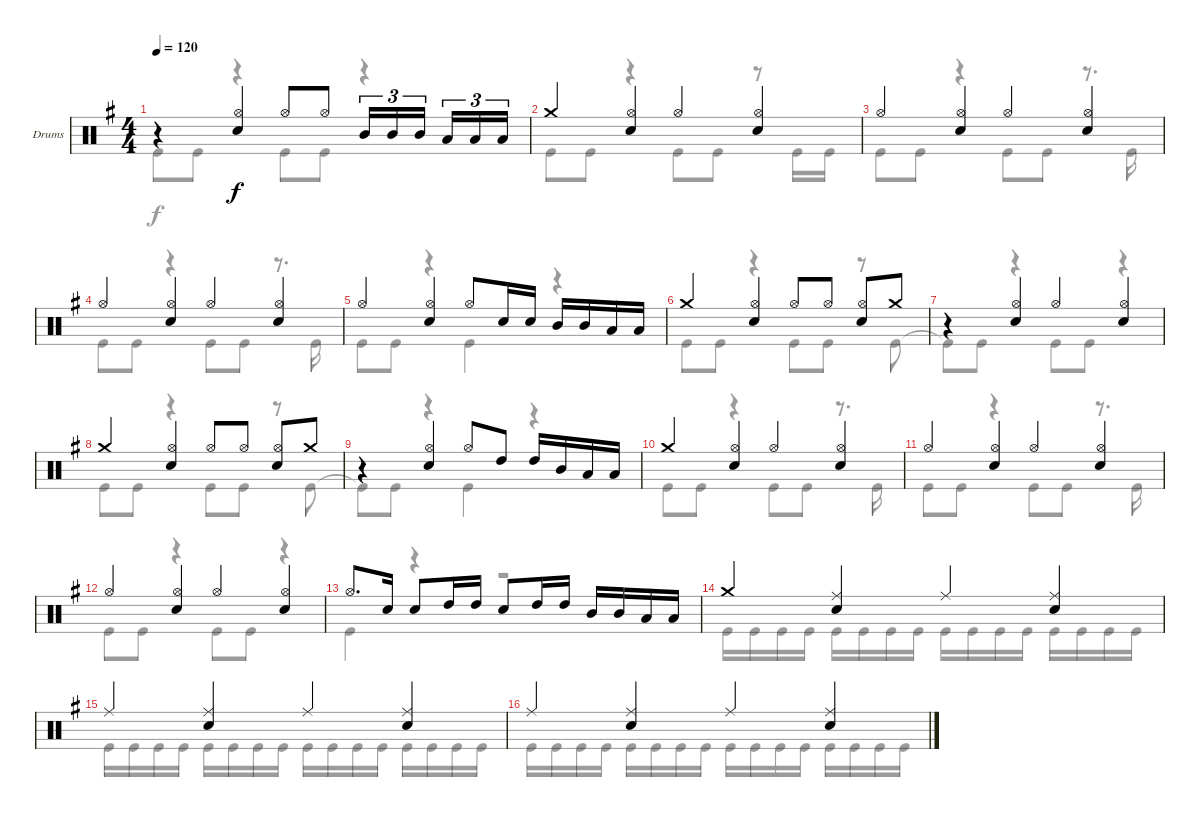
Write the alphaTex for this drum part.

\bracketExtendMode groupsimilarinstruments
\firstSystemTrackNameOrientation horizontal
\otherSystemsTrackNameOrientation horizontal
\track ("Drumkit" "Drums") {mute instrument percussion}
\staff {score}
\articulation defaults
\voice
\ts (4 4)
\tempo 120
\clef neutral
\ks eminor
r.4{dy f} ("Hi-Hat (open)" "Snare (hit) 2").4 "Hi-Hat (open)".8 "Hi-Hat (open)".8 "Mid Tom (hit)".16{tu (3 2)} "Mid Tom (hit)".16{tu (3 2)} "Mid Tom (hit)".16{tu (3 2)} "Low Tom (hit)".16{tu (3 2)} "Low Tom (hit)".16{tu (3 2)} "Low Tom (hit)".16{tu (3 2)} |
"Crash medium (hit)".4 ("Hi-Hat (open)" "Snare (hit) 2").4 "Hi-Hat (open)".4 ("Hi-Hat (open)" "Snare (hit) 2").4 |
"Hi-Hat (open)".4 ("Hi-Hat (open)" "Snare (hit) 2").4 "Hi-Hat (open)".4 ("Hi-Hat (open)" "Snare (hit) 2").4 |
"Hi-Hat (open)".4 ("Hi-Hat (open)" "Snare (hit) 2").4 "Hi-Hat (open)".4 ("Hi-Hat (open)" "Snare (hit) 2").4 |
"Hi-Hat (open)".4 ("Hi-Hat (open)" "Snare (hit) 2").4 "Hi-Hat (open)".8 "Snare (hit) 2".16 "Snare (hit) 2".16 "Mid Tom (hit)".16 "Mid Tom (hit)".16 "Low Tom (hit)".16 "Low Tom (hit)".16 |
"Crash medium (hit)".4 ("Hi-Hat (open)" "Snare (hit) 2").4 "Hi-Hat (open)".8 "Hi-Hat (open)".8 ("Hi-Hat (open)" "Snare (hit) 2").8 "Crash medium (hit)".8 |
r.4 ("Hi-Hat (open)" "Snare (hit) 2").4 "Hi-Hat (open)".4 ("Hi-Hat (open)" "Snare (hit) 2").4 |
"Crash medium (hit)".4 ("Hi-Hat (open)" "Snare (hit) 2").4 "Hi-Hat (open)".8 "Hi-Hat (open)".8 ("Hi-Hat (open)" "Snare (hit) 2").8 "Crash medium (hit)".8 |
r.4 ("Hi-Hat (open)" "Snare (hit) 2").4 "Hi-Hat (open)".8 "High Tom (hit)".8 "High Tom (hit)".16 "Mid Tom (hit)".16 "Low Tom (hit)".16 "Low Tom (hit)".16 |
"Crash medium (hit)".4 ("Hi-Hat (open)" "Snare (hit) 2").4 "Hi-Hat (open)".4 ("Hi-Hat (open)" "Snare (hit) 2").4 |
"Hi-Hat (open)".4 ("Hi-Hat (open)" "Snare (hit) 2").4 "Hi-Hat (open)".4 ("Hi-Hat (open)" "Snare (hit) 2").4 |
"Hi-Hat (open)".4 ("Hi-Hat (open)" "Snare (hit) 2").4 "Hi-Hat (open)".4 ("Hi-Hat (open)" "Snare (hit) 2").4 |
"Hi-Hat (open)".8{d} "Snare (hit) 2".16 "Snare (hit) 2".8 "High Tom (hit)".16 "High Tom (hit)".16 "Snare (hit) 2".8 "High Tom (hit)".16 "High Tom (hit)".16 "Mid Tom (hit)".16 "Mid Tom (hit)".16 "Low Tom (hit)".16 "Low Tom (hit)".16 |
"Crash medium (hit)".4 ("Ride (middle)" "Snare (hit) 2").4 "Ride (middle)".4 ("Ride (middle)" "Snare (hit) 2").4 |
"Ride (middle)".4 ("Ride (middle)" "Snare (hit) 2").4 "Ride (middle)".4 ("Ride (middle)" "Snare (hit) 2").4 |
"Ride (middle)".4 ("Ride (middle)" "Snare (hit) 2").4 "Ride (middle)".4 ("Ride (middle)" "Snare (hit) 2").4
\voice
\clef neutral
\ottava regular
\simile none
\ks eminor "Kick (hit)"{t}.8{dy f} "Kick (hit)".8
r.4 "Kick (hit)".8 "Kick (hit)".8 r.4 |
"Kick (hit)".8 "Kick (hit)".8 r.4 "Kick (hit)".8 "Kick (hit)".8 r.8 "Kick (hit)".16 "Kick (hit)".16 |
"Kick (hit)".8 "Kick (hit)".8 r.4 "Kick (hit)".8 "Kick (hit)".8 r.8{d} "Kick (hit)".16 |
"Kick (hit)".8 "Kick (hit)".8 r.4 "Kick (hit)".8 "Kick (hit)".8 r.8{d} "Kick (hit)".16 |
"Kick (hit)".8 "Kick (hit)".8 r.4 "Kick (hit)".4 r.4 |
"Kick (hit)".8 "Kick (hit)".8 r.4 "Kick (hit)".8 "Kick (hit)".8 r.8 "Kick (hit)".8 |
"Kick (hit)"{t}.8 "Kick (hit)".8 r.4 "Kick (hit)".8 "Kick (hit)".8 r.4 |
"Kick (hit)".8 "Kick (hit)".8 r.4 "Kick (hit)".8 "Kick (hit)".8 r.8 "Kick (hit)".8 |
"Kick (hit)"{t}.8 "Kick (hit)".8 r.4 "Kick (hit)".4 r.4 |
"Kick (hit)".8 "Kick (hit)".8 r.4 "Kick (hit)".8 "Kick (hit)".8 r.8{d} "Kick (hit)".16 |
"Kick (hit)".8 "Kick (hit)".8 r.4 "Kick (hit)".8 "Kick (hit)".8 r.8{d} "Kick (hit)".16 |
"Kick (hit)".8 "Kick (hit)".8 r.4 "Kick (hit)".8 "Kick (hit)".8 r.4 |
"Kick (hit)".4 r.4 r.2 |
"Kick (hit)".16 "Kick (hit)".16 "Kick (hit)".16 "Kick (hit)".16 "Kick (hit)".16 "Kick (hit)".16 "Kick (hit)".16 "Kick (hit)".16 "Kick (hit)".16 "Kick (hit)".16 "Kick (hit)".16 "Kick (hit)".16 "Kick (hit)".16 "Kick (hit)".16 "Kick (hit)".16 "Kick (hit)".16 |
"Kick (hit)".16 "Kick (hit)".16 "Kick (hit)".16 "Kick (hit)".16 "Kick (hit)".16 "Kick (hit)".16 "Kick (hit)".16 "Kick (hit)".16 "Kick (hit)".16 "Kick (hit)".16 "Kick (hit)".16 "Kick (hit)".16 "Kick (hit)".16 "Kick (hit)".16 "Kick (hit)".16 "Kick (hit)".16 |
"Kick (hit)".16 "Kick (hit)".16 "Kick (hit)".16 "Kick (hit)".16 "Kick (hit)".16 "Kick (hit)".16 "Kick (hit)".16 "Kick (hit)".16 "Kick (hit)".16 "Kick (hit)".16 "Kick (hit)".16 "Kick (hit)".16 "Kick (hit)".16 "Kick (hit)".16 "Kick (hit)".16 "Kick (hit)".16
